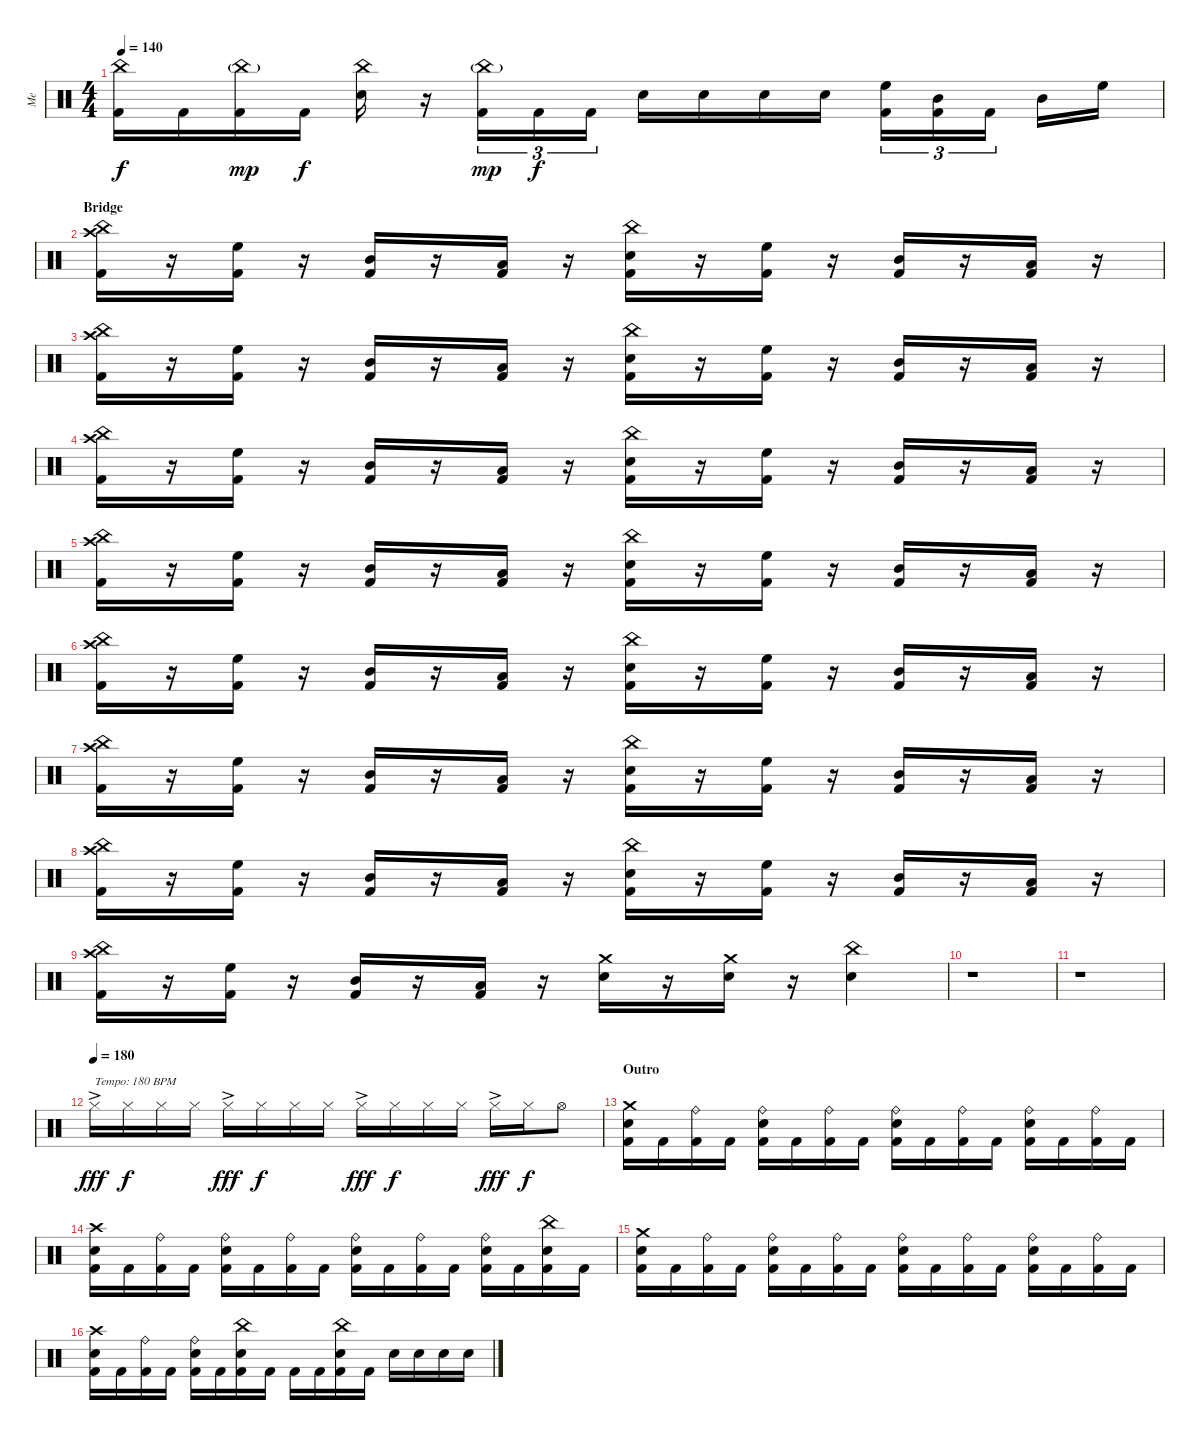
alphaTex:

\track ("Me" "Me") {instrument percussion}
\staff {score}
\articulation defaults
\ts (4 4)
\tempo 140
\clef neutral
\ks c
("China (hit)" "Kick (hit) 2").16{dy f} "Kick (hit) 2".16 ("China (hit)"{g} "Kick (hit) 2").16{dy mp} "Kick (hit) 2".16{dy f} ("China (hit)" "Electric Snare (hit)").16 r.16 ("China (hit)"{g} "Kick (hit) 2").16{tu (3 2) dy mp} "Kick (hit) 2".16{tu (3 2) dy f} "Kick (hit) 2".16{tu (3 2)} "Electric Snare (hit)".16 "Electric Snare (hit)".16 "Electric Snare (hit)".16 "Electric Snare (hit)".16 ("High Floor Tom (hit)" "Kick (hit) 2").16{tu (3 2)} ("Mid Tom (hit)" "Kick (hit) 2").16{tu (3 2)} "Kick (hit) 2".16{tu (3 2)} "Mid Tom (hit)".16 "High Floor Tom (hit)".16 |
\section ("" "Bridge")
("China (hit)" "Crash high (hit)" "Kick (hit) 2").16 r.16 ("High Floor Tom (hit)" "Kick (hit) 2").16 r.16 ("Mid Tom (hit)" "Kick (hit) 2").16 r.16 ("Low Tom (hit)" "Kick (hit) 2").16 r.16 ("China (hit)" "Electric Snare (hit)" "Kick (hit) 2").16 r.16 ("High Floor Tom (hit)" "Kick (hit) 2").16 r.16 ("Mid Tom (hit)" "Kick (hit) 2").16 r.16 ("Low Tom (hit)" "Kick (hit) 2").16 r.16 |
("China (hit)" "Crash high (hit)" "Kick (hit) 2").16 r.16 ("High Floor Tom (hit)" "Kick (hit) 2").16 r.16 ("Mid Tom (hit)" "Kick (hit) 2").16 r.16 ("Low Tom (hit)" "Kick (hit) 2").16 r.16 ("China (hit)" "Electric Snare (hit)" "Kick (hit) 2").16 r.16 ("High Floor Tom (hit)" "Kick (hit) 2").16 r.16 ("Mid Tom (hit)" "Kick (hit) 2").16 r.16 ("Low Tom (hit)" "Kick (hit) 2").16 r.16 |
("China (hit)" "Crash high (hit)" "Kick (hit) 2").16 r.16 ("High Floor Tom (hit)" "Kick (hit) 2").16 r.16 ("Mid Tom (hit)" "Kick (hit) 2").16 r.16 ("Low Tom (hit)" "Kick (hit) 2").16 r.16 ("China (hit)" "Electric Snare (hit)" "Kick (hit) 2").16 r.16 ("High Floor Tom (hit)" "Kick (hit) 2").16 r.16 ("Mid Tom (hit)" "Kick (hit) 2").16 r.16 ("Low Tom (hit)" "Kick (hit) 2").16 r.16 |
("China (hit)" "Crash high (hit)" "Kick (hit) 2").16 r.16 ("High Floor Tom (hit)" "Kick (hit) 2").16 r.16 ("Mid Tom (hit)" "Kick (hit) 2").16 r.16 ("Low Tom (hit)" "Kick (hit) 2").16 r.16 ("China (hit)" "Electric Snare (hit)" "Kick (hit) 2").16 r.16 ("High Floor Tom (hit)" "Kick (hit) 2").16 r.16 ("Mid Tom (hit)" "Kick (hit) 2").16 r.16 ("Low Tom (hit)" "Kick (hit) 2").16 r.16 |
("China (hit)" "Crash high (hit)" "Kick (hit) 2").16 r.16 ("High Floor Tom (hit)" "Kick (hit) 2").16 r.16 ("Mid Tom (hit)" "Kick (hit) 2").16 r.16 ("Low Tom (hit)" "Kick (hit) 2").16 r.16 ("China (hit)" "Electric Snare (hit)" "Kick (hit) 2").16 r.16 ("High Floor Tom (hit)" "Kick (hit) 2").16 r.16 ("Mid Tom (hit)" "Kick (hit) 2").16 r.16 ("Low Tom (hit)" "Kick (hit) 2").16 r.16 |
("China (hit)" "Crash high (hit)" "Kick (hit) 2").16 r.16 ("High Floor Tom (hit)" "Kick (hit) 2").16 r.16 ("Mid Tom (hit)" "Kick (hit) 2").16 r.16 ("Low Tom (hit)" "Kick (hit) 2").16 r.16 ("China (hit)" "Electric Snare (hit)" "Kick (hit) 2").16 r.16 ("High Floor Tom (hit)" "Kick (hit) 2").16 r.16 ("Mid Tom (hit)" "Kick (hit) 2").16 r.16 ("Low Tom (hit)" "Kick (hit) 2").16 r.16 |
("China (hit)" "Crash high (hit)" "Kick (hit) 2").16 r.16 ("High Floor Tom (hit)" "Kick (hit) 2").16 r.16 ("Mid Tom (hit)" "Kick (hit) 2").16 r.16 ("Low Tom (hit)" "Kick (hit) 2").16 r.16 ("China (hit)" "Electric Snare (hit)" "Kick (hit) 2").16 r.16 ("High Floor Tom (hit)" "Kick (hit) 2").16 r.16 ("Mid Tom (hit)" "Kick (hit) 2").16 r.16 ("Low Tom (hit)" "Kick (hit) 2").16 r.16 |
("China (hit)" "Crash high (hit)" "Kick (hit) 2").16 r.16 ("High Floor Tom (hit)" "Kick (hit) 2").16 r.16 ("Mid Tom (hit)" "Kick (hit) 2").16 r.16 ("Low Tom (hit)" "Kick (hit) 2").16 r.16 ("Crash medium (hit)" "Electric Snare (hit)").16 r.16 ("Crash medium (hit)" "Electric Snare (hit)").16 r.16 ("China (hit)" "Electric Snare (hit)").4 |
r.1 |
r.1 |
\tempo (180)
"Hi-Hat (closed)"{ac}.16{txt "Tempo: 180 BPM" dy fff} "Hi-Hat (closed)".16{dy f} "Hi-Hat (closed)".16 "Hi-Hat (closed)".16 "Hi-Hat (closed)"{ac}.16{dy fff} "Hi-Hat (closed)".16{dy f} "Hi-Hat (closed)".16 "Hi-Hat (closed)".16 "Hi-Hat (closed)"{ac}.16{dy fff} "Hi-Hat (closed)".16{dy f} "Hi-Hat (closed)".16 "Hi-Hat (closed)".16 "Hi-Hat (closed)"{ac}.16{dy fff} "Hi-Hat (closed)".16{dy f} "Hi-Hat (open)".8 |
\section ("" "Outro")
("Crash medium (hit)" "Electric Snare (hit)" "Kick (hit) 2").16 "Kick (hit) 2".16 ("Ride (bell)" "Kick (hit) 2").16 "Kick (hit) 2".16 ("Ride (bell)" "Electric Snare (hit)" "Kick (hit) 2").16 "Kick (hit) 2".16 ("Ride (bell)" "Kick (hit) 2").16 "Kick (hit) 2".16 ("Ride (bell)" "Electric Snare (hit)" "Kick (hit) 2").16 "Kick (hit) 2".16 ("Ride (bell)" "Kick (hit) 2").16 "Kick (hit) 2".16 ("Ride (bell)" "Electric Snare (hit)" "Kick (hit) 2").16 "Kick (hit) 2".16 ("Ride (bell)" "Kick (hit) 2").16 "Kick (hit) 2".16 |
("Crash high (hit)" "Electric Snare (hit)" "Kick (hit) 2").16 "Kick (hit) 2".16 ("Ride (bell)" "Kick (hit) 2").16 "Kick (hit) 2".16 ("Ride (bell)" "Electric Snare (hit)" "Kick (hit) 2").16 "Kick (hit) 2".16 ("Ride (bell)" "Kick (hit) 2").16 "Kick (hit) 2".16 ("Ride (bell)" "Electric Snare (hit)" "Kick (hit) 2").16 "Kick (hit) 2".16 ("Ride (bell)" "Kick (hit) 2").16 "Kick (hit) 2".16 ("Ride (bell)" "Electric Snare (hit)" "Kick (hit) 2").16 "Kick (hit) 2".16 ("China (hit)" "Electric Snare (hit)" "Kick (hit) 2").16 "Kick (hit) 2".16 |
("Crash medium (hit)" "Electric Snare (hit)" "Kick (hit) 2").16 "Kick (hit) 2".16 ("Ride (bell)" "Kick (hit) 2").16 "Kick (hit) 2".16 ("Ride (bell)" "Electric Snare (hit)" "Kick (hit) 2").16 "Kick (hit) 2".16 ("Ride (bell)" "Kick (hit) 2").16 "Kick (hit) 2".16 ("Ride (bell)" "Electric Snare (hit)" "Kick (hit) 2").16 "Kick (hit) 2".16 ("Ride (bell)" "Kick (hit) 2").16 "Kick (hit) 2".16 ("Ride (bell)" "Electric Snare (hit)" "Kick (hit) 2").16 "Kick (hit) 2".16 ("Ride (bell)" "Kick (hit) 2").16 "Kick (hit) 2".16 |
("Crash high (hit)" "Electric Snare (hit)" "Kick (hit) 2").16 "Kick (hit) 2".16 ("Ride (bell)" "Kick (hit) 2").16 "Kick (hit) 2".16 ("Ride (bell)" "Electric Snare (hit)" "Kick (hit) 2").16 "Kick (hit) 2".16 ("China (hit)" "Electric Snare (hit)" "Kick (hit) 2").16 "Kick (hit) 2".16 "Kick (hit) 2".16 "Kick (hit) 2".16 ("China (hit)" "Electric Snare (hit)" "Kick (hit) 2").16 "Kick (hit) 2".16 "Electric Snare (hit)".16 "Electric Snare (hit)".16 "Electric Snare (hit)".16 "Electric Snare (hit)".16
